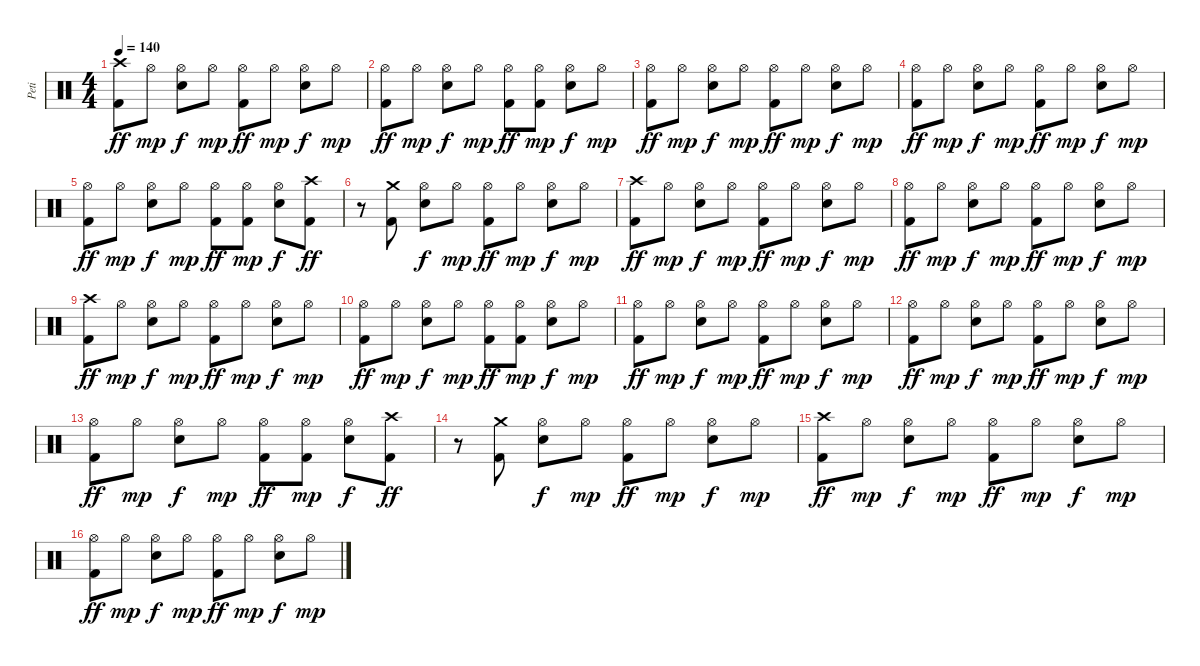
\track ("Peti" "Peti") {instrument percussion}
\staff {score}
\articulation defaults
\ts (4 4)
\tempo 140
\clef neutral
\ks c
("Crash high (hit)" "Kick (hit) 2").8{dy ff} "Hi-Hat (open)".8{dy mp} ("Hi-Hat (open)" "Snare (hit) 2").8{dy f} "Hi-Hat (open)".8{dy mp} ("Hi-Hat (open)" "Kick (hit) 2").8{dy ff} "Hi-Hat (open)".8{dy mp} ("Hi-Hat (open)" "Snare (hit) 2").8{dy f} "Hi-Hat (open)".8{dy mp} |
("Hi-Hat (open)" "Kick (hit) 2").8{dy ff} "Hi-Hat (open)".8{dy mp} ("Hi-Hat (open)" "Snare (hit) 2").8{dy f} "Hi-Hat (open)".8{dy mp} ("Hi-Hat (open)" "Kick (hit) 2").8{dy ff} ("Hi-Hat (open)" "Kick (hit) 2").8{dy mp} ("Hi-Hat (open)" "Snare (hit) 2").8{dy f} "Hi-Hat (open)".8{dy mp} |
("Hi-Hat (open)" "Kick (hit) 2").8{dy ff} "Hi-Hat (open)".8{dy mp} ("Hi-Hat (open)" "Snare (hit) 2").8{dy f} "Hi-Hat (open)".8{dy mp} ("Hi-Hat (open)" "Kick (hit) 2").8{dy ff} "Hi-Hat (open)".8{dy mp} ("Hi-Hat (open)" "Snare (hit) 2").8{dy f} "Hi-Hat (open)".8{dy mp} |
("Hi-Hat (open)" "Kick (hit) 2").8{dy ff} "Hi-Hat (open)".8{dy mp} ("Hi-Hat (open)" "Snare (hit) 2").8{dy f} "Hi-Hat (open)".8{dy mp} ("Hi-Hat (open)" "Kick (hit) 2").8{dy ff} "Hi-Hat (open)".8{dy mp} ("Hi-Hat (open)" "Snare (hit) 2").8{dy f} "Hi-Hat (open)".8{dy mp} |
("Hi-Hat (open)" "Kick (hit) 2").8{dy ff} "Hi-Hat (open)".8{dy mp} ("Hi-Hat (open)" "Snare (hit) 2").8{dy f} "Hi-Hat (open)".8{dy mp} ("Hi-Hat (open)" "Kick (hit) 2").8{dy ff} ("Hi-Hat (open)" "Kick (hit) 2").8{dy mp} ("Hi-Hat (open)" "Snare (hit) 2").8{dy f} ("Crash high (hit)" "Kick (hit) 2").8{dy ff} |
r.8 ("Crash medium (hit)" "Kick (hit) 2").8 ("Hi-Hat (open)" "Snare (hit) 2").8{dy f} "Hi-Hat (open)".8{dy mp} ("Hi-Hat (open)" "Kick (hit) 2").8{dy ff} "Hi-Hat (open)".8{dy mp} ("Hi-Hat (open)" "Snare (hit) 2").8{dy f} "Hi-Hat (open)".8{dy mp} |
("Crash high (hit)" "Kick (hit) 2").8{dy ff} "Hi-Hat (open)".8{dy mp} ("Hi-Hat (open)" "Snare (hit) 2").8{dy f} "Hi-Hat (open)".8{dy mp} ("Hi-Hat (open)" "Kick (hit) 2").8{dy ff} "Hi-Hat (open)".8{dy mp} ("Hi-Hat (open)" "Snare (hit) 2").8{dy f} "Hi-Hat (open)".8{dy mp} |
("Hi-Hat (open)" "Kick (hit) 2").8{dy ff} "Hi-Hat (open)".8{dy mp} ("Hi-Hat (open)" "Snare (hit) 2").8{dy f} "Hi-Hat (open)".8{dy mp} ("Hi-Hat (open)" "Kick (hit) 2").8{dy ff} "Hi-Hat (open)".8{dy mp} ("Hi-Hat (open)" "Snare (hit) 2").8{dy f} "Hi-Hat (open)".8{dy mp} |
("Crash high (hit)" "Kick (hit) 2").8{dy ff} "Hi-Hat (open)".8{dy mp} ("Hi-Hat (open)" "Snare (hit) 2").8{dy f} "Hi-Hat (open)".8{dy mp} ("Hi-Hat (open)" "Kick (hit) 2").8{dy ff} "Hi-Hat (open)".8{dy mp} ("Hi-Hat (open)" "Snare (hit) 2").8{dy f} "Hi-Hat (open)".8{dy mp} |
("Hi-Hat (open)" "Kick (hit) 2").8{dy ff volume 14} "Hi-Hat (open)".8{dy mp} ("Hi-Hat (open)" "Snare (hit) 2").8{dy f} "Hi-Hat (open)".8{dy mp} ("Hi-Hat (open)" "Kick (hit) 2").8{dy ff} ("Hi-Hat (open)" "Kick (hit) 2").8{dy mp} ("Hi-Hat (open)" "Snare (hit) 2").8{dy f} "Hi-Hat (open)".8{dy mp} |
("Hi-Hat (open)" "Kick (hit) 2").8{dy ff volume 12} "Hi-Hat (open)".8{dy mp} ("Hi-Hat (open)" "Snare (hit) 2").8{dy f} "Hi-Hat (open)".8{dy mp} ("Hi-Hat (open)" "Kick (hit) 2").8{dy ff} "Hi-Hat (open)".8{dy mp} ("Hi-Hat (open)" "Snare (hit) 2").8{dy f} "Hi-Hat (open)".8{dy mp} |
("Hi-Hat (open)" "Kick (hit) 2").8{dy ff volume 10} "Hi-Hat (open)".8{dy mp} ("Hi-Hat (open)" "Snare (hit) 2").8{dy f} "Hi-Hat (open)".8{dy mp} ("Hi-Hat (open)" "Kick (hit) 2").8{dy ff} "Hi-Hat (open)".8{dy mp} ("Hi-Hat (open)" "Snare (hit) 2").8{dy f} "Hi-Hat (open)".8{dy mp} |
("Hi-Hat (open)" "Kick (hit) 2").8{dy ff volume 8} "Hi-Hat (open)".8{dy mp} ("Hi-Hat (open)" "Snare (hit) 2").8{dy f} "Hi-Hat (open)".8{dy mp} ("Hi-Hat (open)" "Kick (hit) 2").8{dy ff} ("Hi-Hat (open)" "Kick (hit) 2").8{dy mp} ("Hi-Hat (open)" "Snare (hit) 2").8{dy f} ("Crash high (hit)" "Kick (hit) 2").8{dy ff} |
r.8{volume 6} ("Crash medium (hit)" "Kick (hit) 2").8 ("Hi-Hat (open)" "Snare (hit) 2").8{dy f} "Hi-Hat (open)".8{dy mp} ("Hi-Hat (open)" "Kick (hit) 2").8{dy ff} "Hi-Hat (open)".8{dy mp} ("Hi-Hat (open)" "Snare (hit) 2").8{dy f} "Hi-Hat (open)".8{dy mp} |
("Crash high (hit)" "Kick (hit) 2").8{dy ff volume 4} "Hi-Hat (open)".8{dy mp} ("Hi-Hat (open)" "Snare (hit) 2").8{dy f} "Hi-Hat (open)".8{dy mp} ("Hi-Hat (open)" "Kick (hit) 2").8{dy ff} "Hi-Hat (open)".8{dy mp} ("Hi-Hat (open)" "Snare (hit) 2").8{dy f} "Hi-Hat (open)".8{dy mp} |
("Hi-Hat (open)" "Kick (hit) 2").8{dy ff volume 3} "Hi-Hat (open)".8{dy mp} ("Hi-Hat (open)" "Snare (hit) 2").8{dy f} "Hi-Hat (open)".8{dy mp} ("Hi-Hat (open)" "Kick (hit) 2").8{dy ff volume 2} "Hi-Hat (open)".8{dy mp} ("Hi-Hat (open)" "Snare (hit) 2").8{dy f volume 1} "Hi-Hat (open)".8{dy mp}
